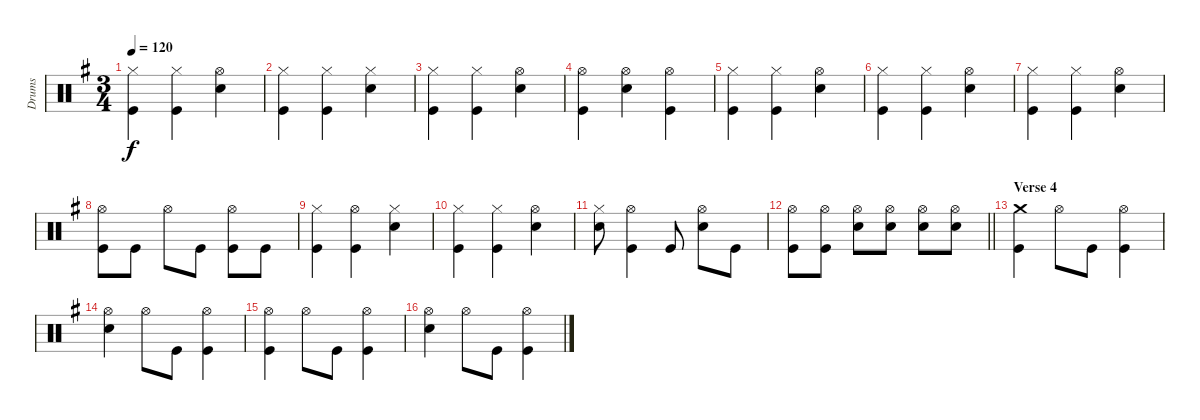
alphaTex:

\track ("Drums" "Drums") {instrument percussion}
\staff {score}
\articulation defaults
\ts (3 4)
\tempo 120
\clef neutral
\ks g
("Hi-Hat (closed)" "Kick (hit)").4{dy f} ("Hi-Hat (closed)" "Kick (hit)").4 ("Hi-Hat (open)" "Snare (hit) 2").4 |
("Hi-Hat (closed)" "Kick (hit)").4 ("Hi-Hat (closed)" "Kick (hit)").4 ("Hi-Hat (closed)" "Snare (hit) 2").4 |
("Hi-Hat (closed)" "Kick (hit)").4 ("Hi-Hat (closed)" "Kick (hit)").4 ("Hi-Hat (open)" "Snare (hit) 2").4 |
("Hi-Hat (open)" "Kick (hit)").4 ("Hi-Hat (open)" "Snare (hit) 2").4 ("Hi-Hat (open)" "Kick (hit)").4 |
("Hi-Hat (closed)" "Kick (hit)").4 ("Hi-Hat (closed)" "Kick (hit)").4 ("Hi-Hat (open)" "Snare (hit) 2").4 |
("Hi-Hat (closed)" "Kick (hit)").4 ("Hi-Hat (closed)" "Kick (hit)").4 ("Hi-Hat (open)" "Snare (hit) 2").4 |
("Hi-Hat (closed)" "Kick (hit)").4 ("Hi-Hat (closed)" "Kick (hit)").4 ("Hi-Hat (open)" "Snare (hit) 2").4 |
("Hi-Hat (open)" "Kick (hit)").8 "Kick (hit)".8 "Hi-Hat (open)".8 "Kick (hit)".8 ("Hi-Hat (open)" "Kick (hit)").8 "Kick (hit)".8 |
("Hi-Hat (closed)" "Kick (hit)").4 ("Hi-Hat (open)" "Kick (hit)").4 ("Hi-Hat (closed)" "Snare (hit) 2").4 |
("Hi-Hat (closed)" "Kick (hit)").4 ("Hi-Hat (closed)" "Kick (hit)").4 ("Hi-Hat (open)" "Snare (hit) 2").4 |
("Hi-Hat (closed)" "Snare (hit) 2").8 ("Hi-Hat (open)" "Kick (hit)").4 "Kick (hit)".8 ("Hi-Hat (open)" "Snare (hit) 2").8 "Kick (hit)".8 |
\barLineRight lightlight
("Hi-Hat (open)" "Kick (hit)").8 ("Hi-Hat (open)" "Kick (hit)").8 ("Hi-Hat (open)" "Snare (hit) 2").8 ("Hi-Hat (open)" "Snare (hit) 2").8 ("Hi-Hat (open)" "Snare (hit) 2").8 ("Hi-Hat (open)" "Snare (hit) 2").8 |
\section ("" "Verse 4")
("Crash medium (hit)" "Kick (hit)").4 "Hi-Hat (open)".8 "Kick (hit)".8 ("Hi-Hat (open)" "Kick (hit)").4 |
("Hi-Hat (open)" "Snare (hit) 2").4 "Hi-Hat (open)".8 "Kick (hit)".8 ("Hi-Hat (open)" "Kick (hit)").4 |
("Hi-Hat (open)" "Kick (hit)").4 "Hi-Hat (open)".8 "Kick (hit)".8 ("Hi-Hat (open)" "Kick (hit)").4 |
("Hi-Hat (open)" "Snare (hit) 2").4 "Hi-Hat (open)".8 "Kick (hit)".8 ("Hi-Hat (open)" "Kick (hit)").4
